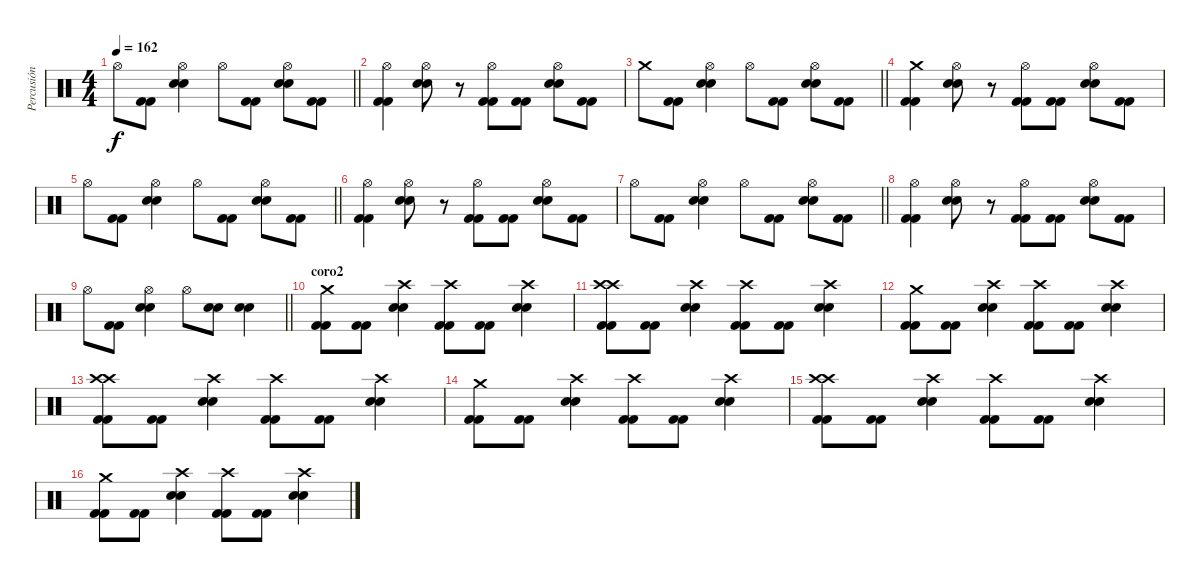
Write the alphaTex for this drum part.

\track ("Percusión" "Percusión") {instrument percussion}
\staff {score}
\articulation defaults
\ts (4 4)
\tempo 162
\clef neutral
\barLineRight lightlight
\ks c "Hi-Hat (open)".8{dy f}
("Kick (hit) 2" "Kick (hit) 2").8 ("Hi-Hat (open)" "Electric Snare (hit)" "Electric Snare (hit)").4 "Hi-Hat (open)".8 ("Kick (hit) 2" "Kick (hit) 2").8 ("Hi-Hat (open)" "Electric Snare (hit)" "Electric Snare (hit)").8 ("Kick (hit) 2" "Kick (hit) 2").8 |
("Hi-Hat (open)" "Kick (hit) 2" "Kick (hit) 2").4 ("Hi-Hat (open)" "Electric Snare (hit)" "Electric Snare (hit)").8 r.8 ("Hi-Hat (open)" "Kick (hit) 2" "Kick (hit) 2").8 ("Kick (hit) 2" "Kick (hit) 2").8 ("Hi-Hat (open)" "Electric Snare (hit)" "Electric Snare (hit)").8 ("Kick (hit) 2" "Kick (hit) 2").8 |
\barLineRight lightlight "Crash medium (hit)".8
("Kick (hit) 2" "Kick (hit) 2").8 ("Hi-Hat (open)" "Electric Snare (hit)" "Electric Snare (hit)").4 "Hi-Hat (open)".8 ("Kick (hit) 2" "Kick (hit) 2").8 ("Hi-Hat (open)" "Electric Snare (hit)" "Electric Snare (hit)").8 ("Kick (hit) 2" "Kick (hit) 2").8 |
("Crash medium (hit)" "Kick (hit) 2" "Kick (hit) 2").4 ("Hi-Hat (open)" "Electric Snare (hit)" "Electric Snare (hit)").8 r.8 ("Hi-Hat (open)" "Kick (hit) 2" "Kick (hit) 2").8 ("Kick (hit) 2" "Kick (hit) 2").8 ("Hi-Hat (open)" "Electric Snare (hit)" "Electric Snare (hit)").8 ("Kick (hit) 2" "Kick (hit) 2").8 |
\barLineRight lightlight "Hi-Hat (open)".8
("Kick (hit) 2" "Kick (hit) 2").8 ("Hi-Hat (open)" "Electric Snare (hit)" "Electric Snare (hit)").4 "Hi-Hat (open)".8 ("Kick (hit) 2" "Kick (hit) 2").8 ("Hi-Hat (open)" "Electric Snare (hit)" "Electric Snare (hit)").8 ("Kick (hit) 2" "Kick (hit) 2").8 |
("Hi-Hat (open)" "Kick (hit) 2" "Kick (hit) 2").4 ("Hi-Hat (open)" "Electric Snare (hit)" "Electric Snare (hit)").8 r.8 ("Hi-Hat (open)" "Kick (hit) 2" "Kick (hit) 2").8 ("Kick (hit) 2" "Kick (hit) 2").8 ("Hi-Hat (open)" "Electric Snare (hit)" "Electric Snare (hit)").8 ("Kick (hit) 2" "Kick (hit) 2").8 |
\barLineRight lightlight "Hi-Hat (open)".8
("Kick (hit) 2" "Kick (hit) 2").8 ("Hi-Hat (open)" "Electric Snare (hit)" "Electric Snare (hit)").4 "Hi-Hat (open)".8 ("Kick (hit) 2" "Kick (hit) 2").8 ("Hi-Hat (open)" "Electric Snare (hit)" "Electric Snare (hit)").8 ("Kick (hit) 2" "Kick (hit) 2").8 |
("Hi-Hat (open)" "Kick (hit) 2" "Kick (hit) 2").4 ("Hi-Hat (open)" "Electric Snare (hit)" "Electric Snare (hit)").8 r.8 ("Hi-Hat (open)" "Kick (hit) 2" "Kick (hit) 2").8 ("Kick (hit) 2" "Kick (hit) 2").8 ("Hi-Hat (open)" "Electric Snare (hit)" "Electric Snare (hit)").8 ("Kick (hit) 2" "Kick (hit) 2").8 |
\barLineRight lightlight "Hi-Hat (open)".8
("Kick (hit) 2" "Kick (hit) 2").8 ("Hi-Hat (open)" "Electric Snare (hit)" "Electric Snare (hit)").4 "Hi-Hat (open)".8 ("Electric Snare (hit)" "Electric Snare (hit)").8 ("Electric Snare (hit)" "Electric Snare (hit)").4 |
\section ("" "coro2")
("Crash medium (hit)" "Kick (hit) 2" "Kick (hit) 2").8 ("Kick (hit) 2" "Kick (hit) 2").8 ("Crash high (hit)" "Electric Snare (hit)" "Electric Snare (hit)").4 ("Crash high (hit)" "Kick (hit) 2" "Kick (hit) 2").8 ("Kick (hit) 2" "Kick (hit) 2").8 ("Crash high (hit)" "Electric Snare (hit)" "Electric Snare (hit)").4 |
("Crash high (hit)" "Crash high (hit)" "Kick (hit) 2" "Kick (hit) 2").8 ("Kick (hit) 2" "Kick (hit) 2").8 ("Crash high (hit)" "Electric Snare (hit)" "Electric Snare (hit)").4 ("Crash high (hit)" "Kick (hit) 2" "Kick (hit) 2").8 ("Kick (hit) 2" "Kick (hit) 2").8 ("Crash high (hit)" "Electric Snare (hit)" "Electric Snare (hit)").4 |
("Crash medium (hit)" "Kick (hit) 2" "Kick (hit) 2").8 ("Kick (hit) 2" "Kick (hit) 2").8 ("Crash high (hit)" "Electric Snare (hit)" "Electric Snare (hit)").4 ("Crash high (hit)" "Kick (hit) 2" "Kick (hit) 2").8 ("Kick (hit) 2" "Kick (hit) 2").8 ("Crash high (hit)" "Electric Snare (hit)" "Electric Snare (hit)").4 |
("Crash high (hit)" "Crash high (hit)" "Kick (hit) 2" "Kick (hit) 2").8 ("Kick (hit) 2" "Kick (hit) 2").8 ("Crash high (hit)" "Electric Snare (hit)" "Electric Snare (hit)").4 ("Crash high (hit)" "Kick (hit) 2" "Kick (hit) 2").8 ("Kick (hit) 2" "Kick (hit) 2").8 ("Crash high (hit)" "Electric Snare (hit)" "Electric Snare (hit)").4 |
("Crash medium (hit)" "Kick (hit) 2" "Kick (hit) 2").8 ("Kick (hit) 2" "Kick (hit) 2").8 ("Crash high (hit)" "Electric Snare (hit)" "Electric Snare (hit)").4 ("Crash high (hit)" "Kick (hit) 2" "Kick (hit) 2").8 ("Kick (hit) 2" "Kick (hit) 2").8 ("Crash high (hit)" "Electric Snare (hit)" "Electric Snare (hit)").4 |
("Crash high (hit)" "Crash high (hit)" "Kick (hit) 2" "Kick (hit) 2").8 ("Kick (hit) 2" "Kick (hit) 2").8 ("Crash high (hit)" "Electric Snare (hit)" "Electric Snare (hit)").4 ("Crash high (hit)" "Kick (hit) 2" "Kick (hit) 2").8 ("Kick (hit) 2" "Kick (hit) 2").8 ("Crash high (hit)" "Electric Snare (hit)" "Electric Snare (hit)").4 |
("Crash medium (hit)" "Kick (hit) 2" "Kick (hit) 2").8 ("Kick (hit) 2" "Kick (hit) 2").8 ("Crash high (hit)" "Electric Snare (hit)" "Electric Snare (hit)").4 ("Crash high (hit)" "Kick (hit) 2" "Kick (hit) 2").8 ("Kick (hit) 2" "Kick (hit) 2").8 ("Crash high (hit)" "Electric Snare (hit)" "Electric Snare (hit)").4
